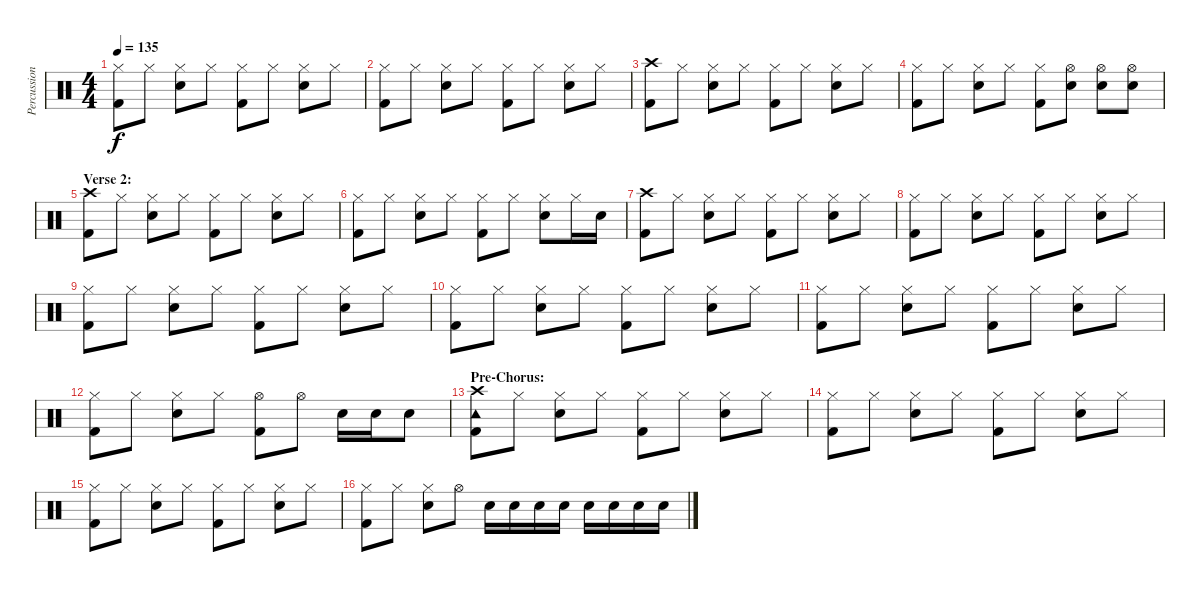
\track ("Percussion" "Percussion") {instrument percussion}
\staff {score}
\articulation defaults
\ts (4 4)
\tempo 135
\clef neutral
\ks c
("Hi-Hat (closed)" "Kick (hit) 2").8{dy f} "Hi-Hat (closed)".8 ("Hi-Hat (closed)" "Snare (hit) 2").8 "Hi-Hat (closed)".8 ("Hi-Hat (closed)" "Kick (hit) 2").8 "Hi-Hat (closed)".8 ("Hi-Hat (closed)" "Snare (hit) 2").8 "Hi-Hat (closed)".8 |
("Hi-Hat (closed)" "Kick (hit) 2").8 "Hi-Hat (closed)".8 ("Hi-Hat (closed)" "Snare (hit) 2").8 "Hi-Hat (closed)".8 ("Hi-Hat (closed)" "Kick (hit) 2").8 "Hi-Hat (closed)".8 ("Hi-Hat (closed)" "Snare (hit) 2").8 "Hi-Hat (closed)".8 |
("Crash high (hit)" "Kick (hit) 2").8 "Hi-Hat (closed)".8 ("Hi-Hat (closed)" "Snare (hit) 2").8 "Hi-Hat (closed)".8 ("Hi-Hat (closed)" "Kick (hit) 2").8 "Hi-Hat (closed)".8 ("Hi-Hat (closed)" "Snare (hit) 2").8 "Hi-Hat (closed)".8 |
("Hi-Hat (closed)" "Kick (hit) 2").8 "Hi-Hat (closed)".8 ("Hi-Hat (closed)" "Snare (hit) 2").8 "Hi-Hat (closed)".8 ("Hi-Hat (closed)" "Kick (hit) 2").8 ("Hi-Hat (open)" "Snare (hit) 2").8 ("Hi-Hat (open)" "Snare (hit) 2").8 ("Hi-Hat (open)" "Snare (hit) 2").8 |
\section ("" "Verse 2:")
("Crash high (hit)" "Kick (hit) 2").8 "Hi-Hat (closed)".8 ("Hi-Hat (closed)" "Snare (hit) 2").8 "Hi-Hat (closed)".8 ("Hi-Hat (closed)" "Kick (hit) 2").8 "Hi-Hat (closed)".8 ("Hi-Hat (closed)" "Snare (hit) 2").8 "Hi-Hat (closed)".8 |
("Hi-Hat (closed)" "Kick (hit) 2").8 "Hi-Hat (closed)".8 ("Hi-Hat (closed)" "Snare (hit) 2").8 "Hi-Hat (closed)".8 ("Hi-Hat (closed)" "Kick (hit) 2").8 "Hi-Hat (closed)".8 ("Hi-Hat (closed)" "Snare (hit) 2").8 "Hi-Hat (closed)".16 "Snare (hit) 2".16 |
("Crash high (hit)" "Kick (hit) 2").8 "Hi-Hat (closed)".8 ("Hi-Hat (closed)" "Snare (hit) 2").8 "Hi-Hat (closed)".8 ("Hi-Hat (closed)" "Kick (hit) 2").8 "Hi-Hat (closed)".8 ("Hi-Hat (closed)" "Snare (hit) 2").8 "Hi-Hat (closed)".8 |
("Hi-Hat (closed)" "Kick (hit) 2").8 "Hi-Hat (closed)".8 ("Hi-Hat (closed)" "Snare (hit) 2").8 "Hi-Hat (closed)".8 ("Hi-Hat (closed)" "Kick (hit) 2").8 "Hi-Hat (closed)".8 ("Hi-Hat (closed)" "Snare (hit) 2").8 "Hi-Hat (closed)".8 |
("Hi-Hat (closed)" "Kick (hit) 2").8 "Hi-Hat (closed)".8 ("Hi-Hat (closed)" "Snare (hit) 2").8 "Hi-Hat (closed)".8 ("Hi-Hat (closed)" "Kick (hit) 2").8 "Hi-Hat (closed)".8 ("Hi-Hat (closed)" "Snare (hit) 2").8 "Hi-Hat (closed)".8 |
("Hi-Hat (closed)" "Kick (hit) 2").8 "Hi-Hat (closed)".8 ("Hi-Hat (closed)" "Snare (hit) 2").8 "Hi-Hat (closed)".8 ("Hi-Hat (closed)" "Kick (hit) 2").8 "Hi-Hat (closed)".8 ("Hi-Hat (closed)" "Snare (hit) 2").8 "Hi-Hat (closed)".8 |
("Hi-Hat (closed)" "Kick (hit) 2").8 "Hi-Hat (closed)".8 ("Hi-Hat (closed)" "Snare (hit) 2").8 "Hi-Hat (closed)".8 ("Hi-Hat (closed)" "Kick (hit) 2").8 "Hi-Hat (closed)".8 ("Hi-Hat (closed)" "Snare (hit) 2").8 "Hi-Hat (closed)".8 |
("Hi-Hat (closed)" "Kick (hit) 2").8 "Hi-Hat (closed)".8 ("Hi-Hat (closed)" "Snare (hit) 2").8 "Hi-Hat (closed)".8 ("Hi-Hat (open)" "Kick (hit) 2").8 "Hi-Hat (open)".8 "Snare (hit) 2".16 "Snare (hit) 2".16 "Snare (hit) 2".8 |
\section ("" "Pre-Chorus:")
("Crash high (hit)" "Tambourine (hit)" "Kick (hit) 2").8 "Hi-Hat (closed)".8 ("Hi-Hat (closed)" "Snare (hit) 2").8 "Hi-Hat (closed)".8 ("Hi-Hat (closed)" "Kick (hit) 2").8 "Hi-Hat (closed)".8 ("Hi-Hat (closed)" "Snare (hit) 2").8 "Hi-Hat (closed)".8 |
("Hi-Hat (closed)" "Kick (hit) 2").8 "Hi-Hat (closed)".8 ("Hi-Hat (closed)" "Snare (hit) 2").8 "Hi-Hat (closed)".8 ("Hi-Hat (closed)" "Kick (hit) 2").8 "Hi-Hat (closed)".8 ("Hi-Hat (closed)" "Snare (hit) 2").8 "Hi-Hat (closed)".8 |
("Hi-Hat (closed)" "Kick (hit) 2").8 "Hi-Hat (closed)".8 ("Hi-Hat (closed)" "Snare (hit) 2").8 "Hi-Hat (closed)".8 ("Hi-Hat (closed)" "Kick (hit) 2").8 "Hi-Hat (closed)".8 ("Hi-Hat (closed)" "Snare (hit) 2").8 "Hi-Hat (closed)".8 |
("Hi-Hat (closed)" "Kick (hit) 2").8 "Hi-Hat (closed)".8 ("Hi-Hat (closed)" "Snare (hit) 2").8 "Hi-Hat (open)".8 "Snare (hit) 2".16 "Snare (hit) 2".16 "Snare (hit) 2".16 "Snare (hit) 2".16 "Snare (hit) 2".16 "Snare (hit) 2".16 "Snare (hit) 2".16 "Snare (hit) 2".16
